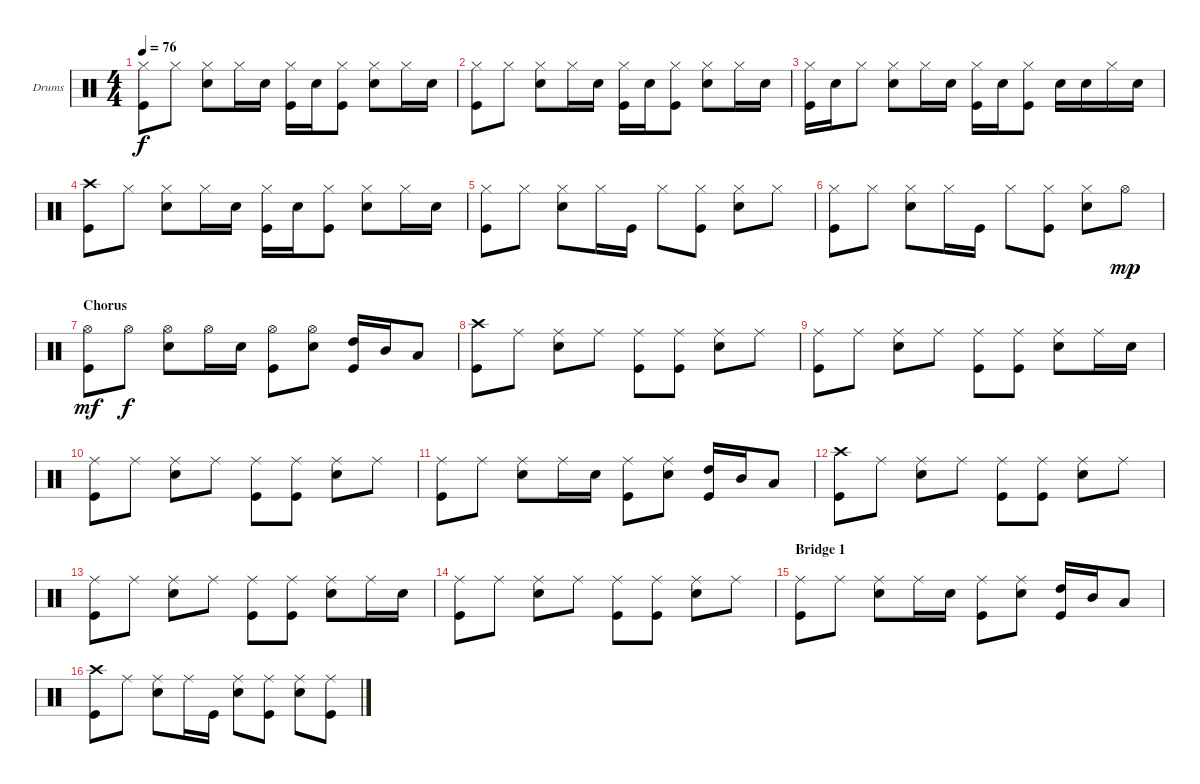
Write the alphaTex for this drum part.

\bracketExtendMode groupsimilarinstruments
\firstSystemTrackNameOrientation horizontal
\otherSystemsTrackNameOrientation horizontal
\track ("Drums" "Drums") {instrument percussion}
\staff {score}
\articulation defaults
\ts (4 4)
\tempo 76
\clef neutral
\scale
0.333333
\ks c
("Hi-Hat (closed)" "Kick (hit)").8{dy f} "Hi-Hat (closed)".8 ("Hi-Hat (closed)" "Snare (hit) 2").8 "Hi-Hat (closed)".16 "Snare (hit) 2".16 ("Hi-Hat (closed)" "Kick (hit)").16 "Snare (hit) 2".16 ("Hi-Hat (closed)" "Kick (hit)").8 ("Hi-Hat (closed)" "Snare (hit) 2").8 "Hi-Hat (closed)".16 "Snare (hit) 2".16 |
\scale
0.333333 ("Hi-Hat (closed)" "Kick (hit)").8 "Hi-Hat (closed)".8 ("Hi-Hat (closed)" "Snare (hit) 2").8 "Hi-Hat (closed)".16 "Snare (hit) 2".16 ("Hi-Hat (closed)" "Kick (hit)").16 "Snare (hit) 2".16 ("Hi-Hat (closed)" "Kick (hit)").8 ("Hi-Hat (closed)" "Snare (hit) 2").8 "Hi-Hat (closed)".16 "Snare (hit) 2".16 |
\scale
0.333333 ("Hi-Hat (closed)" "Kick (hit)").16 "Snare (hit) 2".16 "Hi-Hat (closed)".8 ("Hi-Hat (closed)" "Snare (hit) 2").8 "Hi-Hat (closed)".16 "Snare (hit) 2".16 ("Hi-Hat (closed)" "Kick (hit)").16 "Snare (hit) 2".16 ("Hi-Hat (closed)" "Kick (hit)").8 "Snare (hit) 2".16 "Snare (hit) 2".16 "Hi-Hat (closed)".16 "Snare (hit) 2".16 |
\scale
0.333333 ("Crash high (hit)" "Kick (hit)").8 "Hi-Hat (closed)".8 ("Hi-Hat (closed)" "Snare (hit) 2").8 "Hi-Hat (closed)".16 "Snare (hit) 2".16 ("Hi-Hat (closed)" "Kick (hit)").16 "Snare (hit) 2".16 ("Hi-Hat (closed)" "Kick (hit)").8 ("Hi-Hat (closed)" "Snare (hit) 2").8 "Hi-Hat (closed)".16 "Snare (hit) 2".16 |
("Hi-Hat (closed)" "Kick (hit)").8 "Hi-Hat (closed)".8 ("Hi-Hat (closed)" "Snare (hit) 2").8 "Hi-Hat (closed)".16 "Kick (hit)".16 "Hi-Hat (closed)".8 ("Hi-Hat (closed)" "Kick (hit)").8 ("Hi-Hat (closed)" "Snare (hit) 2").8 "Hi-Hat (closed)".8 |
("Hi-Hat (closed)" "Kick (hit)").8 "Hi-Hat (closed)".8 ("Hi-Hat (closed)" "Snare (hit) 2").8 "Hi-Hat (closed)".16 "Kick (hit)".16 "Hi-Hat (closed)".8 ("Hi-Hat (closed)" "Kick (hit)").8 ("Hi-Hat (closed)" "Snare (hit) 2").8 "Hi-Hat (open)".8{dy mp} |
\section ("" "Chorus")
("Hi-Hat (open)" "Kick (hit)").8{dy mf} "Hi-Hat (open)".8{dy f} ("Hi-Hat (open)" "Snare (hit) 2").8 "Hi-Hat (open)".16 "Snare (hit) 2".16 ("Hi-Hat (open)" "Kick (hit)").8 ("Hi-Hat (open)" "Snare (hit) 2").8 ("High Tom (hit)" "Kick (hit)").16 "Mid Tom (hit)".16 "Low Tom (hit)".8 |
("Crash high (hit)" "Kick (hit)").8 "Ride (middle)".8 ("Ride (middle)" "Snare (hit) 2").8 "Ride (middle)".8 ("Ride (middle)" "Kick (hit)").8 ("Ride (middle)" "Kick (hit)").8 ("Ride (middle)" "Snare (hit) 2").8 "Ride (middle)".8 |
("Ride (middle)" "Kick (hit)").8 "Ride (middle)".8 ("Ride (middle)" "Snare (hit) 2").8 "Ride (middle)".8 ("Ride (middle)" "Kick (hit)").8 ("Ride (middle)" "Kick (hit)").8 ("Ride (middle)" "Snare (hit) 2").8 "Ride (middle)".16 "Snare (hit) 2".16 |
("Ride (middle)" "Kick (hit)").8 "Ride (middle)".8 ("Ride (middle)" "Snare (hit) 2").8 "Ride (middle)".8 ("Ride (middle)" "Kick (hit)").8 ("Ride (middle)" "Kick (hit)").8 ("Ride (middle)" "Snare (hit) 2").8 "Ride (middle)".8 |
("Ride (middle)" "Kick (hit)").8 "Ride (middle)".8 ("Ride (middle)" "Snare (hit) 2").8 "Ride (middle)".16 "Snare (hit) 2".16 ("Ride (middle)" "Kick (hit)").8 ("Ride (middle)" "Snare (hit) 2").8 ("High Tom (hit)" "Kick (hit)").16 "Mid Tom (hit)".16 "Low Tom (hit)".8 |
("Crash high (hit)" "Kick (hit)").8 "Ride (middle)".8 ("Ride (middle)" "Snare (hit) 2").8 "Ride (middle)".8 ("Ride (middle)" "Kick (hit)").8 ("Ride (middle)" "Kick (hit)").8 ("Ride (middle)" "Snare (hit) 2").8 "Ride (middle)".8 |
("Ride (middle)" "Kick (hit)").8 "Ride (middle)".8 ("Ride (middle)" "Snare (hit) 2").8 "Ride (middle)".8 ("Ride (middle)" "Kick (hit)").8 ("Ride (middle)" "Kick (hit)").8 ("Ride (middle)" "Snare (hit) 2").8 "Ride (middle)".16 "Snare (hit) 2".16 |
("Ride (middle)" "Kick (hit)").8 "Ride (middle)".8 ("Ride (middle)" "Snare (hit) 2").8 "Ride (middle)".8 ("Ride (middle)" "Kick (hit)").8 ("Ride (middle)" "Kick (hit)").8 ("Ride (middle)" "Snare (hit) 2").8 "Ride (middle)".8 |
\section ("" "Bridge 1")
("Ride (middle)" "Kick (hit)").8 "Ride (middle)".8 ("Ride (middle)" "Snare (hit) 2").8 "Ride (middle)".16 "Snare (hit) 2".16 ("Ride (middle)" "Kick (hit)").8 ("Ride (middle)" "Snare (hit) 2").8 ("High Tom (hit)" "Kick (hit)").16 "Mid Tom (hit)".16 "Low Tom (hit)".8 |
("Crash high (hit)" "Kick (hit)").8 "Ride (middle)".8 ("Ride (middle)" "Snare (hit) 2").8 "Ride (middle)".16 "Kick (hit)".16 ("Ride (middle)" "Snare (hit) 2").8 ("Ride (middle)" "Kick (hit)").8 ("Ride (middle)" "Snare (hit) 2").8 ("Ride (middle)" "Kick (hit)").8
